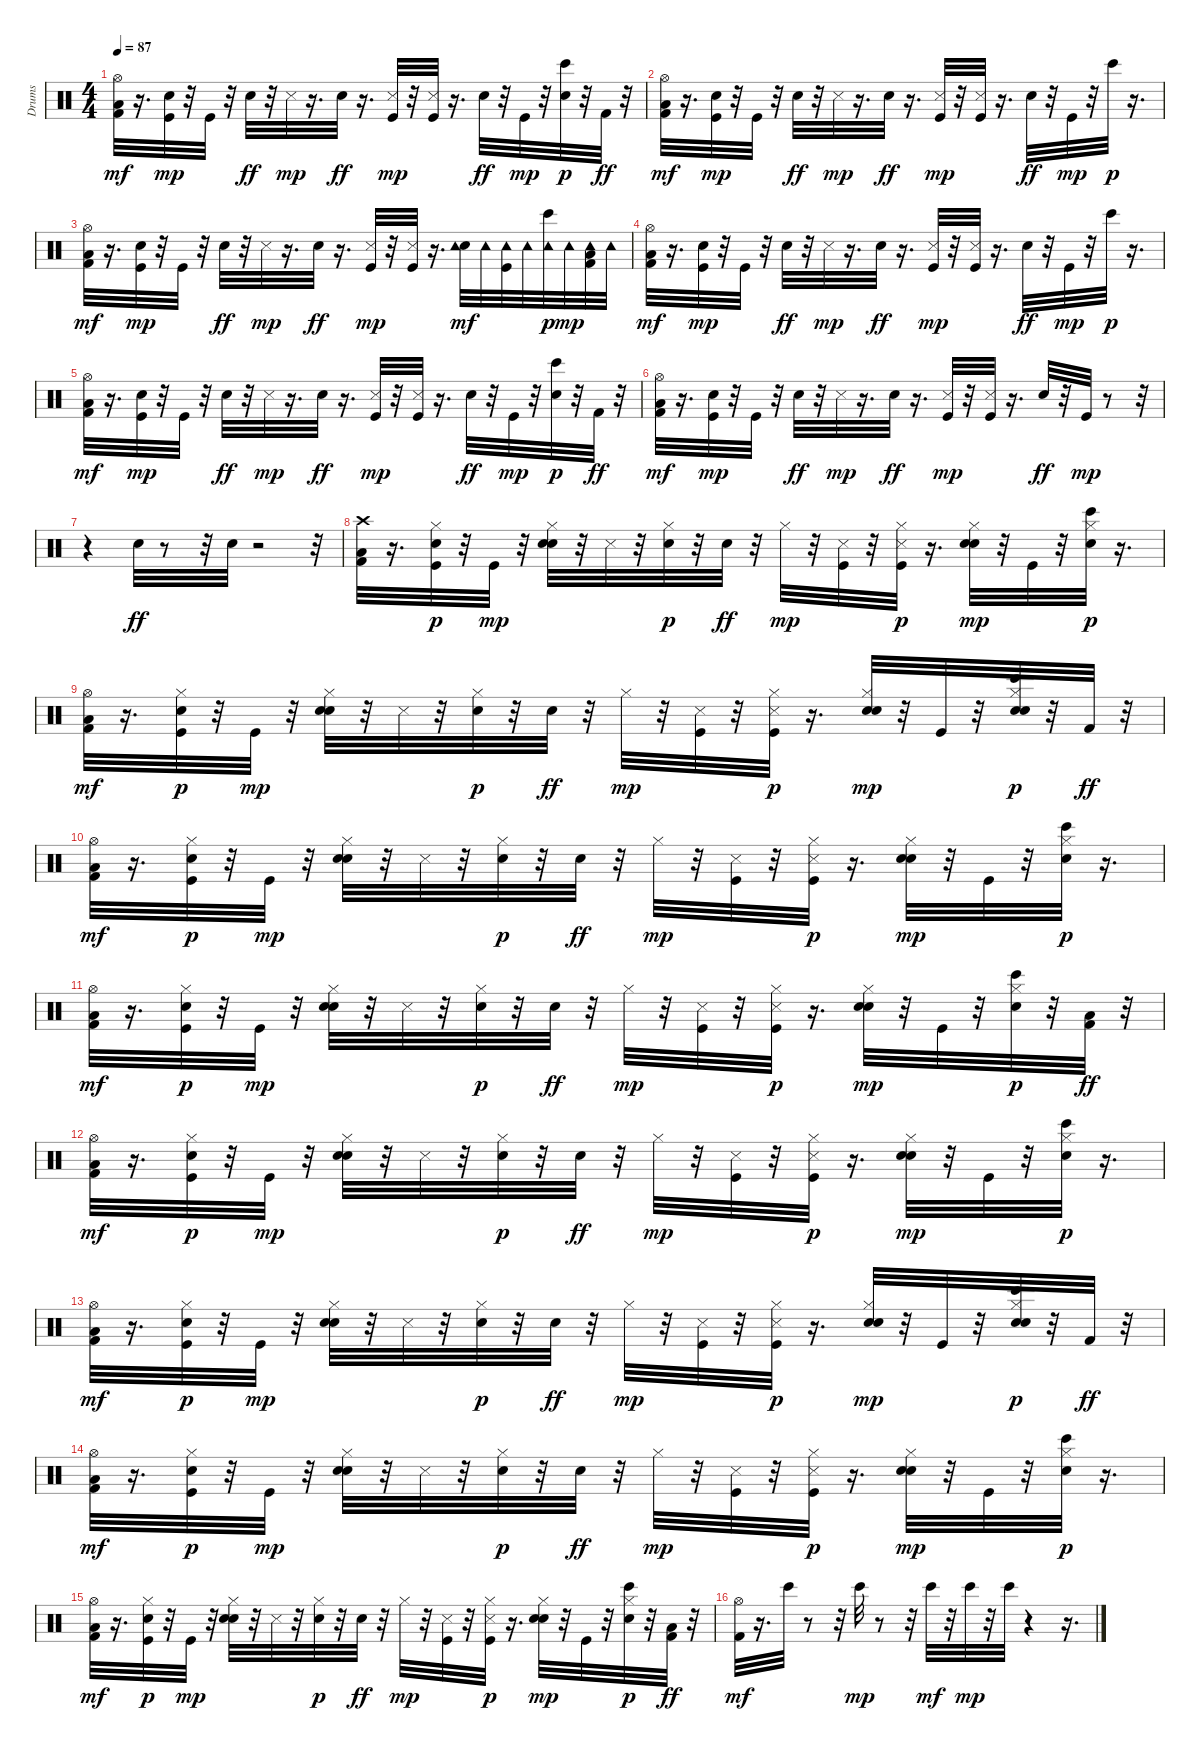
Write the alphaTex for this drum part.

\track ("Drums     " "Drums     ") {instrument percussion}
\staff {score}
\articulation defaults
\ts (4 4)
\tempo 87
\clef neutral
\ks c
("Kick (hit) 2" "Low Floor Tom (hit)" "Hi-Hat (open)").32{dy mf} r.16{d} ("Kick (hit)" "Snare (hit) 2").32{dy mp} r.32 "Kick (hit)".32 r.32 "Hand Clap (hit)".32{dy ff} r.32 "Snare (side stick) 3".32{dy mp} r.16{d} "Hand Clap (hit)".32{dy ff} r.16{d} ("Kick (hit)" "Snare (side stick) 3").32{dy mp} r.32 ("Kick (hit)" "Snare (side stick) 3").32 r.16{d} "Hand Clap (hit)".32{dy ff} r.32 "Kick (hit)".32{dy mp} r.32 ("Snare (hit) 2" "Bongo High (hit)").32{dy p} r.32 "Kick (hit) 2".32{dy ff} r.32 |
("Kick (hit) 2" "Low Floor Tom (hit)" "Hi-Hat (open)").32{dy mf} r.16{d} ("Kick (hit)" "Snare (hit) 2").32{dy mp} r.32 "Kick (hit)".32 r.32 "Hand Clap (hit)".32{dy ff} r.32 "Snare (side stick) 3".32{dy mp} r.16{d} "Hand Clap (hit)".32{dy ff} r.16{d} ("Kick (hit)" "Snare (side stick) 3").32{dy mp} r.32 ("Kick (hit)" "Snare (side stick) 3").32 r.16{d} "Hand Clap (hit)".32{dy ff} r.32 "Kick (hit)".32{dy mp} r.32 "Bongo High (hit)".32{dy p} r.16{d} |
("Kick (hit) 2" "Low Floor Tom (hit)" "Hi-Hat (open)").32{dy mf} r.16{d} ("Kick (hit)" "Snare (hit) 2").32{dy mp} r.32 "Kick (hit)".32 r.32 "Hand Clap (hit)".32{dy ff} r.32 "Snare (side stick) 3".32{dy mp} r.16{d} "Hand Clap (hit)".32{dy ff} r.16{d} ("Kick (hit)" "Snare (side stick) 3").32{dy mp} r.32 ("Kick (hit)" "Snare (side stick) 3").32 r.16{d} ("Hand Clap (hit)" "Tambourine (hit)").32{dy mf} "Tambourine (hit)".32 ("Kick (hit)" "Tambourine (hit)").32 "Tambourine (hit)".32 ("Tambourine (hit)" "Bongo High (hit)").32{dy p} "Tambourine (hit)".32{dy mp} ("Kick (hit) 2" "Low Floor Tom (hit)" "Tambourine (hit)").32 "Tambourine (hit)".32 |
("Kick (hit) 2" "Low Floor Tom (hit)" "Hi-Hat (open)").32{dy mf} r.16{d} ("Kick (hit)" "Snare (hit) 2").32{dy mp} r.32 "Kick (hit)".32 r.32 "Hand Clap (hit)".32{dy ff} r.32 "Snare (side stick) 3".32{dy mp} r.16{d} "Hand Clap (hit)".32{dy ff} r.16{d} ("Kick (hit)" "Snare (side stick) 3").32{dy mp} r.32 ("Kick (hit)" "Snare (side stick) 3").32 r.16{d} "Hand Clap (hit)".32{dy ff} r.32 "Kick (hit)".32{dy mp} r.32 "Bongo High (hit)".32{dy p} r.16{d} |
("Kick (hit) 2" "Low Floor Tom (hit)" "Hi-Hat (open)").32{dy mf} r.16{d} ("Kick (hit)" "Snare (hit) 2").32{dy mp} r.32 "Kick (hit)".32 r.32 "Hand Clap (hit)".32{dy ff} r.32 "Snare (side stick) 3".32{dy mp} r.16{d} "Hand Clap (hit)".32{dy ff} r.16{d} ("Kick (hit)" "Snare (side stick) 3").32{dy mp} r.32 ("Kick (hit)" "Snare (side stick) 3").32 r.16{d} "Hand Clap (hit)".32{dy ff} r.32 "Kick (hit)".32{dy mp} r.32 ("Snare (hit) 2" "Bongo High (hit)").32{dy p} r.32 "Kick (hit) 2".32{dy ff} r.32 |
("Kick (hit) 2" "Low Floor Tom (hit)" "Hi-Hat (open)").32{dy mf} r.16{d} ("Kick (hit)" "Snare (hit) 2").32{dy mp} r.32 "Kick (hit)".32 r.32 "Hand Clap (hit)".32{dy ff} r.32 "Snare (side stick) 3".32{dy mp} r.16{d} "Hand Clap (hit)".32{dy ff} r.16{d} ("Kick (hit)" "Snare (side stick) 3").32{dy mp} r.32 ("Kick (hit)" "Snare (side stick) 3").32 r.16{d} "Hand Clap (hit)".32{dy ff} r.32 "Kick (hit)".32{dy mp} r.8 r.32 |
r.4 "Hand Clap (hit)".32{dy ff} r.8 r.32 "Hand Clap (hit)".32 r.2 r.32 |
("Kick (hit) 2" "Low Floor Tom (hit)" "Crash high (hit)").32 r.16{d} ("Kick (hit)" "Snare (hit) 2" "Hi-Hat (closed)").32{dy p} r.32 "Kick (hit)".32{dy mp} r.32 ("Electric Snare (hit)" "Hand Clap (hit)" "Hi-Hat (closed)").32 r.32 "Snare (side stick) 3".32 r.32 ("Electric Snare (hit)" "Hi-Hat (closed)").32{dy p} r.32 "Hand Clap (hit)".32{dy ff} r.32 "Hi-Hat (closed)".32{dy mp} r.32 ("Kick (hit)" "Snare (side stick) 3").32 r.32 ("Kick (hit)" "Snare (side stick) 3" "Hi-Hat (closed)").32{dy p} r.16{d} ("Electric Snare (hit)" "Hand Clap (hit)" "Hi-Hat (closed)").32{dy mp} r.32 "Kick (hit)".32 r.32 ("Electric Snare (hit)" "Hi-Hat (closed)" "Bongo High (hit)").32{dy p} r.16{d} |
("Kick (hit) 2" "Low Floor Tom (hit)" "Hi-Hat (open)").32{dy mf} r.16{d} ("Kick (hit)" "Snare (hit) 2" "Hi-Hat (closed)").32{dy p} r.32 "Kick (hit)".32{dy mp} r.32 ("Electric Snare (hit)" "Hand Clap (hit)" "Hi-Hat (closed)").32 r.32 "Snare (side stick) 3".32 r.32 ("Electric Snare (hit)" "Hi-Hat (closed)").32{dy p} r.32 "Hand Clap (hit)".32{dy ff} r.32 "Hi-Hat (closed)".32{dy mp} r.32 ("Kick (hit)" "Snare (side stick) 3").32 r.32 ("Kick (hit)" "Snare (side stick) 3" "Hi-Hat (closed)").32{dy p} r.16{d} ("Electric Snare (hit)" "Hand Clap (hit)" "Hi-Hat (closed)").32{dy mp} r.32 "Kick (hit)".32 r.32 ("Snare (hit) 2" "Electric Snare (hit)" "Hi-Hat (closed)" "Bongo High (hit)").32{dy p} r.32 "Kick (hit) 2".32{dy ff} r.32 |
("Kick (hit) 2" "Low Floor Tom (hit)" "Hi-Hat (open)").32{dy mf} r.16{d} ("Kick (hit)" "Snare (hit) 2" "Hi-Hat (closed)").32{dy p} r.32 "Kick (hit)".32{dy mp} r.32 ("Electric Snare (hit)" "Hand Clap (hit)" "Hi-Hat (closed)").32 r.32 "Snare (side stick) 3".32 r.32 ("Electric Snare (hit)" "Hi-Hat (closed)").32{dy p} r.32 "Hand Clap (hit)".32{dy ff} r.32 "Hi-Hat (closed)".32{dy mp} r.32 ("Kick (hit)" "Snare (side stick) 3").32 r.32 ("Kick (hit)" "Snare (side stick) 3" "Hi-Hat (closed)").32{dy p} r.16{d} ("Electric Snare (hit)" "Hand Clap (hit)" "Hi-Hat (closed)").32{dy mp} r.32 "Kick (hit)".32 r.32 ("Electric Snare (hit)" "Hi-Hat (closed)" "Bongo High (hit)").32{dy p} r.16{d} |
("Kick (hit) 2" "Low Floor Tom (hit)" "Hi-Hat (open)").32{dy mf} r.16{d} ("Kick (hit)" "Snare (hit) 2" "Hi-Hat (closed)").32{dy p} r.32 "Kick (hit)".32{dy mp} r.32 ("Electric Snare (hit)" "Hand Clap (hit)" "Hi-Hat (closed)").32 r.32 "Snare (side stick) 3".32 r.32 ("Electric Snare (hit)" "Hi-Hat (closed)").32{dy p} r.32 "Hand Clap (hit)".32{dy ff} r.32 "Hi-Hat (closed)".32{dy mp} r.32 ("Kick (hit)" "Snare (side stick) 3").32 r.32 ("Kick (hit)" "Snare (side stick) 3" "Hi-Hat (closed)").32{dy p} r.16{d} ("Electric Snare (hit)" "Hand Clap (hit)" "Hi-Hat (closed)").32{dy mp} r.32 "Kick (hit)".32 r.32 ("Electric Snare (hit)" "Hi-Hat (closed)" "Bongo High (hit)").32{dy p} r.32 ("Kick (hit) 2" "Low Floor Tom (hit)").32{dy ff} r.32 |
("Kick (hit) 2" "Low Floor Tom (hit)" "Hi-Hat (open)").32{dy mf} r.16{d} ("Kick (hit)" "Snare (hit) 2" "Hi-Hat (closed)").32{dy p} r.32 "Kick (hit)".32{dy mp} r.32 ("Electric Snare (hit)" "Hand Clap (hit)" "Hi-Hat (closed)").32 r.32 "Snare (side stick) 3".32 r.32 ("Electric Snare (hit)" "Hi-Hat (closed)").32{dy p} r.32 "Hand Clap (hit)".32{dy ff} r.32 "Hi-Hat (closed)".32{dy mp} r.32 ("Kick (hit)" "Snare (side stick) 3").32 r.32 ("Kick (hit)" "Snare (side stick) 3" "Hi-Hat (closed)").32{dy p} r.16{d} ("Electric Snare (hit)" "Hand Clap (hit)" "Hi-Hat (closed)").32{dy mp} r.32 "Kick (hit)".32 r.32 ("Electric Snare (hit)" "Hi-Hat (closed)" "Bongo High (hit)").32{dy p} r.16{d} |
("Kick (hit) 2" "Low Floor Tom (hit)" "Hi-Hat (open)").32{dy mf} r.16{d} ("Kick (hit)" "Snare (hit) 2" "Hi-Hat (closed)").32{dy p} r.32 "Kick (hit)".32{dy mp} r.32 ("Electric Snare (hit)" "Hand Clap (hit)" "Hi-Hat (closed)").32 r.32 "Snare (side stick) 3".32 r.32 ("Electric Snare (hit)" "Hi-Hat (closed)").32{dy p} r.32 "Hand Clap (hit)".32{dy ff} r.32 "Hi-Hat (closed)".32{dy mp} r.32 ("Kick (hit)" "Snare (side stick) 3").32 r.32 ("Kick (hit)" "Snare (side stick) 3" "Hi-Hat (closed)").32{dy p} r.16{d} ("Electric Snare (hit)" "Hand Clap (hit)" "Hi-Hat (closed)").32{dy mp} r.32 "Kick (hit)".32 r.32 ("Snare (hit) 2" "Electric Snare (hit)" "Hi-Hat (closed)" "Bongo High (hit)").32{dy p} r.32 "Kick (hit) 2".32{dy ff} r.32 |
("Kick (hit) 2" "Low Floor Tom (hit)" "Hi-Hat (open)").32{dy mf} r.16{d} ("Kick (hit)" "Snare (hit) 2" "Hi-Hat (closed)").32{dy p} r.32 "Kick (hit)".32{dy mp} r.32 ("Electric Snare (hit)" "Hand Clap (hit)" "Hi-Hat (closed)").32 r.32 "Snare (side stick) 3".32 r.32 ("Electric Snare (hit)" "Hi-Hat (closed)").32{dy p} r.32 "Hand Clap (hit)".32{dy ff} r.32 "Hi-Hat (closed)".32{dy mp} r.32 ("Kick (hit)" "Snare (side stick) 3").32 r.32 ("Kick (hit)" "Snare (side stick) 3" "Hi-Hat (closed)").32{dy p} r.16{d} ("Electric Snare (hit)" "Hand Clap (hit)" "Hi-Hat (closed)").32{dy mp} r.32 "Kick (hit)".32 r.32 ("Electric Snare (hit)" "Hi-Hat (closed)" "Bongo High (hit)").32{dy p} r.16{d} |
("Kick (hit) 2" "Low Floor Tom (hit)" "Hi-Hat (open)").32{dy mf} r.16{d} ("Kick (hit)" "Snare (hit) 2" "Hi-Hat (closed)").32{dy p} r.32 "Kick (hit)".32{dy mp} r.32 ("Electric Snare (hit)" "Hand Clap (hit)" "Hi-Hat (closed)").32 r.32 "Snare (side stick) 3".32 r.32 ("Electric Snare (hit)" "Hi-Hat (closed)").32{dy p} r.32 "Hand Clap (hit)".32{dy ff} r.32 "Hi-Hat (closed)".32{dy mp} r.32 ("Kick (hit)" "Snare (side stick) 3").32 r.32 ("Kick (hit)" "Snare (side stick) 3" "Hi-Hat (closed)").32{dy p} r.16{d} ("Electric Snare (hit)" "Hand Clap (hit)" "Hi-Hat (closed)").32{dy mp} r.32 "Kick (hit)".32 r.32 ("Electric Snare (hit)" "Hi-Hat (closed)" "Bongo High (hit)").32{dy p} r.32 ("Kick (hit) 2" "Low Floor Tom (hit)").32{dy ff} r.32 |
("Kick (hit) 2" "Hi-Hat (open)").32{dy mf} r.16{d} "Bongo High (hit)".32 r.8 r.32 "Bongo High (hit)".32{dy mp} r.8 r.32 "Bongo High (hit)".32{dy mf} r.32 "Bongo High (hit)".32{dy mp} r.32 "Bongo High (hit)".32 r.4 r.16{d}
